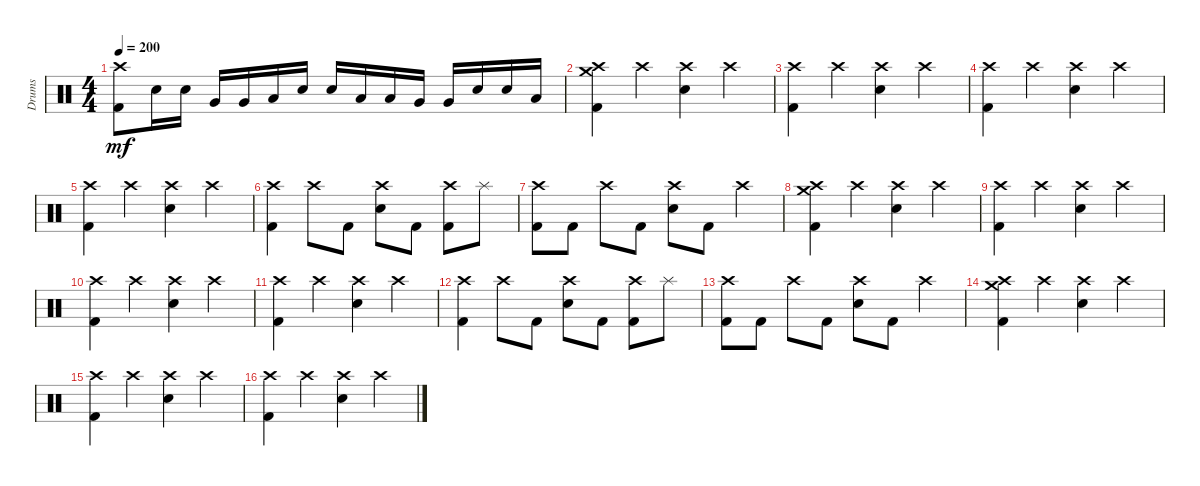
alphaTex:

\track ("Drums" "Drums") {instrument percussion}
\staff {score}
\articulation defaults
\ts (4 4)
\tempo 200
\clef neutral
\ks c
("Crash high (hit)" "Kick (hit) 2").8{dy mf} "Electric Snare (hit)".16 "Electric Snare (hit)".16 "Very Low Tom (hit)".16 "Very Low Tom (hit)".16 "Low Floor Tom (hit)".16 "Electric Snare (hit)".16 "Electric Snare (hit)".16 "Low Tom (hit)".16 "Low Tom (hit)".16 "Very Low Tom (hit)".16 "Very Low Tom (hit)".16 "Electric Snare (hit)".16 "Electric Snare (hit)".16 "Low Floor Tom (hit)".16 |
("Crash high (hit)" "Crash medium (hit)" "Kick (hit) 2").4 "Crash high (hit)".4 ("Crash high (hit)" "Electric Snare (hit)").4 "Crash high (hit)".4 |
("Crash high (hit)" "Kick (hit) 2").4 "Crash high (hit)".4 ("Crash high (hit)" "Electric Snare (hit)").4 "Crash high (hit)".4 |
("Crash high (hit)" "Kick (hit) 2").4 "Crash high (hit)".4 ("Crash high (hit)" "Electric Snare (hit)").4 "Crash high (hit)".4 |
("Crash high (hit)" "Kick (hit) 2").4 "Crash high (hit)".4 ("Crash high (hit)" "Electric Snare (hit)").4 "Crash high (hit)".4 |
("Crash high (hit)" "Kick (hit) 2").4 "Crash high (hit)".8 "Kick (hit) 2".8 ("Crash high (hit)" "Electric Snare (hit)").8 "Kick (hit) 2".8 ("Crash high (hit)" "Kick (hit) 2").8 "Splash (hit)".8 |
("Crash high (hit)" "Kick (hit) 2").8 "Kick (hit) 2".8 "Crash high (hit)".8 "Kick (hit) 2".8 ("Crash high (hit)" "Electric Snare (hit)").8 "Kick (hit) 2".8 "Crash high (hit)".4 |
("Crash high (hit)" "Crash medium (hit)" "Kick (hit) 2").4 "Crash high (hit)".4 ("Crash high (hit)" "Electric Snare (hit)").4 "Crash high (hit)".4 |
("Crash high (hit)" "Kick (hit) 2").4 "Crash high (hit)".4 ("Crash high (hit)" "Electric Snare (hit)").4 "Crash high (hit)".4 |
("Crash high (hit)" "Kick (hit) 2").4 "Crash high (hit)".4 ("Crash high (hit)" "Electric Snare (hit)").4 "Crash high (hit)".4 |
("Crash high (hit)" "Kick (hit) 2").4 "Crash high (hit)".4 ("Crash high (hit)" "Electric Snare (hit)").4 "Crash high (hit)".4 |
("Crash high (hit)" "Kick (hit) 2").4 "Crash high (hit)".8 "Kick (hit) 2".8 ("Crash high (hit)" "Electric Snare (hit)").8 "Kick (hit) 2".8 ("Crash high (hit)" "Kick (hit) 2").8 "Splash (hit)".8 |
("Crash high (hit)" "Kick (hit) 2").8 "Kick (hit) 2".8 "Crash high (hit)".8 "Kick (hit) 2".8 ("Crash high (hit)" "Electric Snare (hit)").8 "Kick (hit) 2".8 "Crash high (hit)".4 |
("Crash high (hit)" "Crash medium (hit)" "Kick (hit) 2").4 "Crash high (hit)".4 ("Crash high (hit)" "Electric Snare (hit)").4 "Crash high (hit)".4 |
("Crash high (hit)" "Kick (hit) 2").4 "Crash high (hit)".4 ("Crash high (hit)" "Electric Snare (hit)").4 "Crash high (hit)".4 |
("Crash high (hit)" "Kick (hit) 2").4 "Crash high (hit)".4 ("Crash high (hit)" "Electric Snare (hit)").4 "Crash high (hit)".4
